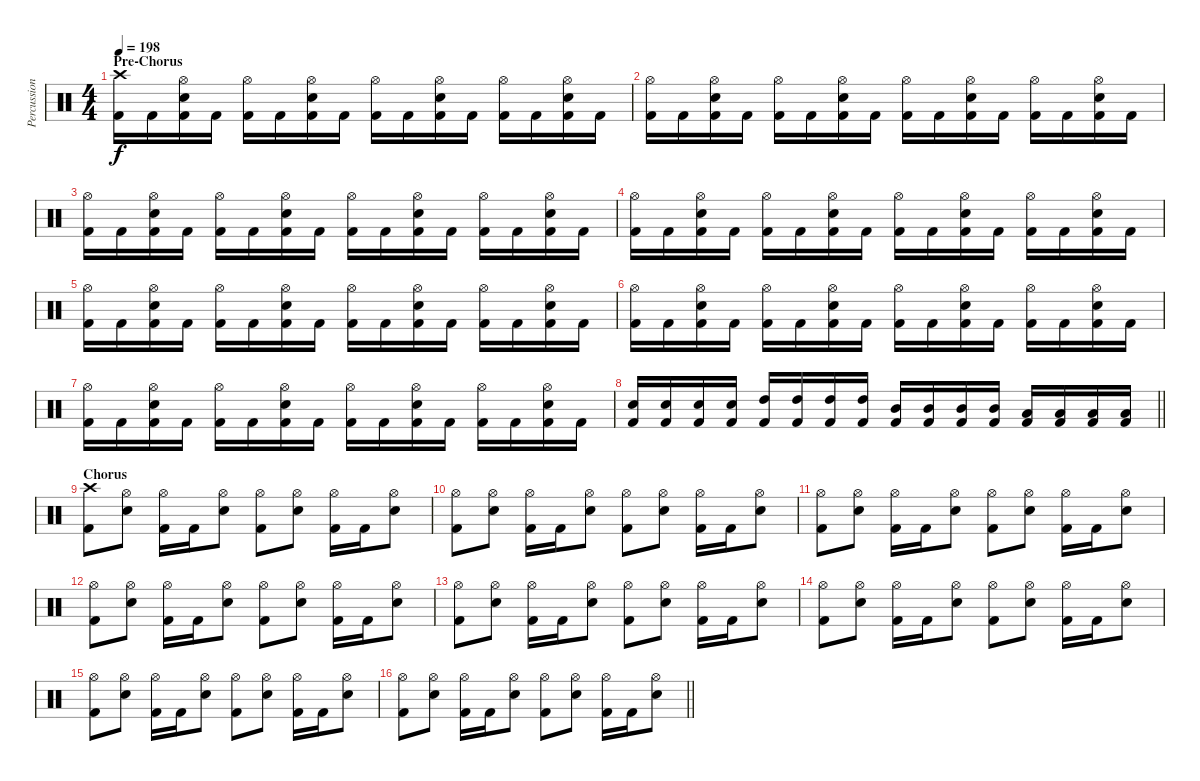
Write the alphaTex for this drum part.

\track ("Percussion" "Percussion") {instrument percussion}
\staff {score}
\articulation defaults
\ts (4 4)
\section ("" "Pre-Chorus")
\tempo 198
\clef neutral
\ks c
("Crash high (hit)" "Kick (hit) 2").16{dy f} "Kick (hit) 2".16 ("Hi-Hat (open)" "Electric Snare (hit)" "Kick (hit) 2").16 "Kick (hit) 2".16 ("Hi-Hat (open)" "Kick (hit) 2").16 "Kick (hit) 2".16 ("Hi-Hat (open)" "Electric Snare (hit)" "Kick (hit) 2").16 "Kick (hit) 2".16 ("Hi-Hat (open)" "Kick (hit) 2").16 "Kick (hit) 2".16 ("Hi-Hat (open)" "Electric Snare (hit)" "Kick (hit) 2").16 "Kick (hit) 2".16 ("Hi-Hat (open)" "Kick (hit) 2").16 "Kick (hit) 2".16 ("Hi-Hat (open)" "Electric Snare (hit)" "Kick (hit) 2").16 "Kick (hit) 2".16 |
("Hi-Hat (open)" "Kick (hit) 2").16 "Kick (hit) 2".16 ("Hi-Hat (open)" "Electric Snare (hit)" "Kick (hit) 2").16 "Kick (hit) 2".16 ("Hi-Hat (open)" "Kick (hit) 2").16 "Kick (hit) 2".16 ("Hi-Hat (open)" "Electric Snare (hit)" "Kick (hit) 2").16 "Kick (hit) 2".16 ("Hi-Hat (open)" "Kick (hit) 2").16 "Kick (hit) 2".16 ("Hi-Hat (open)" "Electric Snare (hit)" "Kick (hit) 2").16 "Kick (hit) 2".16 ("Hi-Hat (open)" "Kick (hit) 2").16 "Kick (hit) 2".16 ("Hi-Hat (open)" "Electric Snare (hit)" "Kick (hit) 2").16 "Kick (hit) 2".16 |
("Hi-Hat (open)" "Kick (hit) 2").16 "Kick (hit) 2".16 ("Hi-Hat (open)" "Electric Snare (hit)" "Kick (hit) 2").16 "Kick (hit) 2".16 ("Hi-Hat (open)" "Kick (hit) 2").16 "Kick (hit) 2".16 ("Hi-Hat (open)" "Electric Snare (hit)" "Kick (hit) 2").16 "Kick (hit) 2".16 ("Hi-Hat (open)" "Kick (hit) 2").16 "Kick (hit) 2".16 ("Hi-Hat (open)" "Electric Snare (hit)" "Kick (hit) 2").16 "Kick (hit) 2".16 ("Hi-Hat (open)" "Kick (hit) 2").16 "Kick (hit) 2".16 ("Hi-Hat (open)" "Electric Snare (hit)" "Kick (hit) 2").16 "Kick (hit) 2".16 |
("Hi-Hat (open)" "Kick (hit) 2").16 "Kick (hit) 2".16 ("Hi-Hat (open)" "Electric Snare (hit)" "Kick (hit) 2").16 "Kick (hit) 2".16 ("Hi-Hat (open)" "Kick (hit) 2").16 "Kick (hit) 2".16 ("Hi-Hat (open)" "Electric Snare (hit)" "Kick (hit) 2").16 "Kick (hit) 2".16 ("Hi-Hat (open)" "Kick (hit) 2").16 "Kick (hit) 2".16 ("Hi-Hat (open)" "Electric Snare (hit)" "Kick (hit) 2").16 "Kick (hit) 2".16 ("Hi-Hat (open)" "Kick (hit) 2").16 "Kick (hit) 2".16 ("Hi-Hat (open)" "Electric Snare (hit)" "Kick (hit) 2").16 "Kick (hit) 2".16 |
("Hi-Hat (open)" "Kick (hit) 2").16 "Kick (hit) 2".16 ("Hi-Hat (open)" "Electric Snare (hit)" "Kick (hit) 2").16 "Kick (hit) 2".16 ("Hi-Hat (open)" "Kick (hit) 2").16 "Kick (hit) 2".16 ("Hi-Hat (open)" "Electric Snare (hit)" "Kick (hit) 2").16 "Kick (hit) 2".16 ("Hi-Hat (open)" "Kick (hit) 2").16 "Kick (hit) 2".16 ("Hi-Hat (open)" "Electric Snare (hit)" "Kick (hit) 2").16 "Kick (hit) 2".16 ("Hi-Hat (open)" "Kick (hit) 2").16 "Kick (hit) 2".16 ("Hi-Hat (open)" "Electric Snare (hit)" "Kick (hit) 2").16 "Kick (hit) 2".16 |
("Hi-Hat (open)" "Kick (hit) 2").16 "Kick (hit) 2".16 ("Hi-Hat (open)" "Electric Snare (hit)" "Kick (hit) 2").16 "Kick (hit) 2".16 ("Hi-Hat (open)" "Kick (hit) 2").16 "Kick (hit) 2".16 ("Hi-Hat (open)" "Electric Snare (hit)" "Kick (hit) 2").16 "Kick (hit) 2".16 ("Hi-Hat (open)" "Kick (hit) 2").16 "Kick (hit) 2".16 ("Hi-Hat (open)" "Electric Snare (hit)" "Kick (hit) 2").16 "Kick (hit) 2".16 ("Hi-Hat (open)" "Kick (hit) 2").16 "Kick (hit) 2".16 ("Hi-Hat (open)" "Electric Snare (hit)" "Kick (hit) 2").16 "Kick (hit) 2".16 |
("Hi-Hat (open)" "Kick (hit) 2").16 "Kick (hit) 2".16 ("Hi-Hat (open)" "Electric Snare (hit)" "Kick (hit) 2").16 "Kick (hit) 2".16 ("Hi-Hat (open)" "Kick (hit) 2").16 "Kick (hit) 2".16 ("Hi-Hat (open)" "Electric Snare (hit)" "Kick (hit) 2").16 "Kick (hit) 2".16 ("Hi-Hat (open)" "Kick (hit) 2").16 "Kick (hit) 2".16 ("Hi-Hat (open)" "Electric Snare (hit)" "Kick (hit) 2").16 "Kick (hit) 2".16 ("Hi-Hat (open)" "Kick (hit) 2").16 "Kick (hit) 2".16 ("Hi-Hat (open)" "Electric Snare (hit)" "Kick (hit) 2").16 "Kick (hit) 2".16 |
\barLineRight lightlight
("Electric Snare (hit)" "Kick (hit) 2").16 ("Electric Snare (hit)" "Kick (hit) 2").16 ("Electric Snare (hit)" "Kick (hit) 2").16 ("Electric Snare (hit)" "Kick (hit) 2").16 ("High Tom (hit)" "Kick (hit) 2").16 ("High Tom (hit)" "Kick (hit) 2").16 ("High Tom (hit)" "Kick (hit) 2").16 ("High Tom (hit)" "Kick (hit) 2").16 ("Mid Tom (hit)" "Kick (hit) 2").16 ("Mid Tom (hit)" "Kick (hit) 2").16 ("Mid Tom (hit)" "Kick (hit) 2").16 ("Mid Tom (hit)" "Kick (hit) 2").16 ("Low Tom (hit)" "Kick (hit) 2").16 ("Low Tom (hit)" "Kick (hit) 2").16 ("Low Tom (hit)" "Kick (hit) 2").16 ("Low Tom (hit)" "Kick (hit) 2").16 |
\section ("" "Chorus")
("Crash high (hit)" "Kick (hit) 2").8 ("Hi-Hat (open)" "Electric Snare (hit)").8 ("Hi-Hat (open)" "Kick (hit) 2").16 "Kick (hit) 2".16 ("Hi-Hat (open)" "Electric Snare (hit)").8 ("Hi-Hat (open)" "Kick (hit) 2").8 ("Hi-Hat (open)" "Electric Snare (hit)").8 ("Hi-Hat (open)" "Kick (hit) 2").16 "Kick (hit) 2".16 ("Hi-Hat (open)" "Electric Snare (hit)").8 |
("Hi-Hat (open)" "Kick (hit) 2").8 ("Hi-Hat (open)" "Electric Snare (hit)").8 ("Hi-Hat (open)" "Kick (hit) 2").16 "Kick (hit) 2".16 ("Hi-Hat (open)" "Electric Snare (hit)").8 ("Hi-Hat (open)" "Kick (hit) 2").8 ("Hi-Hat (open)" "Electric Snare (hit)").8 ("Hi-Hat (open)" "Kick (hit) 2").16 "Kick (hit) 2".16 ("Hi-Hat (open)" "Electric Snare (hit)").8 |
("Hi-Hat (open)" "Kick (hit) 2").8 ("Hi-Hat (open)" "Electric Snare (hit)").8 ("Hi-Hat (open)" "Kick (hit) 2").16 "Kick (hit) 2".16 ("Hi-Hat (open)" "Electric Snare (hit)").8 ("Hi-Hat (open)" "Kick (hit) 2").8 ("Hi-Hat (open)" "Electric Snare (hit)").8 ("Hi-Hat (open)" "Kick (hit) 2").16 "Kick (hit) 2".16 ("Hi-Hat (open)" "Electric Snare (hit)").8 |
("Hi-Hat (open)" "Kick (hit) 2").8 ("Hi-Hat (open)" "Electric Snare (hit)").8 ("Hi-Hat (open)" "Kick (hit) 2").16 "Kick (hit) 2".16 ("Hi-Hat (open)" "Electric Snare (hit)").8 ("Hi-Hat (open)" "Kick (hit) 2").8 ("Hi-Hat (open)" "Electric Snare (hit)").8 ("Hi-Hat (open)" "Kick (hit) 2").16 "Kick (hit) 2".16 ("Hi-Hat (open)" "Electric Snare (hit)").8 |
("Hi-Hat (open)" "Kick (hit) 2").8 ("Hi-Hat (open)" "Electric Snare (hit)").8 ("Hi-Hat (open)" "Kick (hit) 2").16 "Kick (hit) 2".16 ("Hi-Hat (open)" "Electric Snare (hit)").8 ("Hi-Hat (open)" "Kick (hit) 2").8 ("Hi-Hat (open)" "Electric Snare (hit)").8 ("Hi-Hat (open)" "Kick (hit) 2").16 "Kick (hit) 2".16 ("Hi-Hat (open)" "Electric Snare (hit)").8 |
("Hi-Hat (open)" "Kick (hit) 2").8 ("Hi-Hat (open)" "Electric Snare (hit)").8 ("Hi-Hat (open)" "Kick (hit) 2").16 "Kick (hit) 2".16 ("Hi-Hat (open)" "Electric Snare (hit)").8 ("Hi-Hat (open)" "Kick (hit) 2").8 ("Hi-Hat (open)" "Electric Snare (hit)").8 ("Hi-Hat (open)" "Kick (hit) 2").16 "Kick (hit) 2".16 ("Hi-Hat (open)" "Electric Snare (hit)").8 |
("Hi-Hat (open)" "Kick (hit) 2").8 ("Hi-Hat (open)" "Electric Snare (hit)").8 ("Hi-Hat (open)" "Kick (hit) 2").16 "Kick (hit) 2".16 ("Hi-Hat (open)" "Electric Snare (hit)").8 ("Hi-Hat (open)" "Kick (hit) 2").8 ("Hi-Hat (open)" "Electric Snare (hit)").8 ("Hi-Hat (open)" "Kick (hit) 2").16 "Kick (hit) 2".16 ("Hi-Hat (open)" "Electric Snare (hit)").8 |
\barLineRight lightlight
("Hi-Hat (open)" "Kick (hit) 2").8 ("Hi-Hat (open)" "Electric Snare (hit)").8 ("Hi-Hat (open)" "Kick (hit) 2").16 "Kick (hit) 2".16 ("Hi-Hat (open)" "Electric Snare (hit)").8 ("Hi-Hat (open)" "Kick (hit) 2").8 ("Hi-Hat (open)" "Electric Snare (hit)").8 ("Hi-Hat (open)" "Kick (hit) 2").16 "Kick (hit) 2".16 ("Hi-Hat (open)" "Electric Snare (hit)").8
